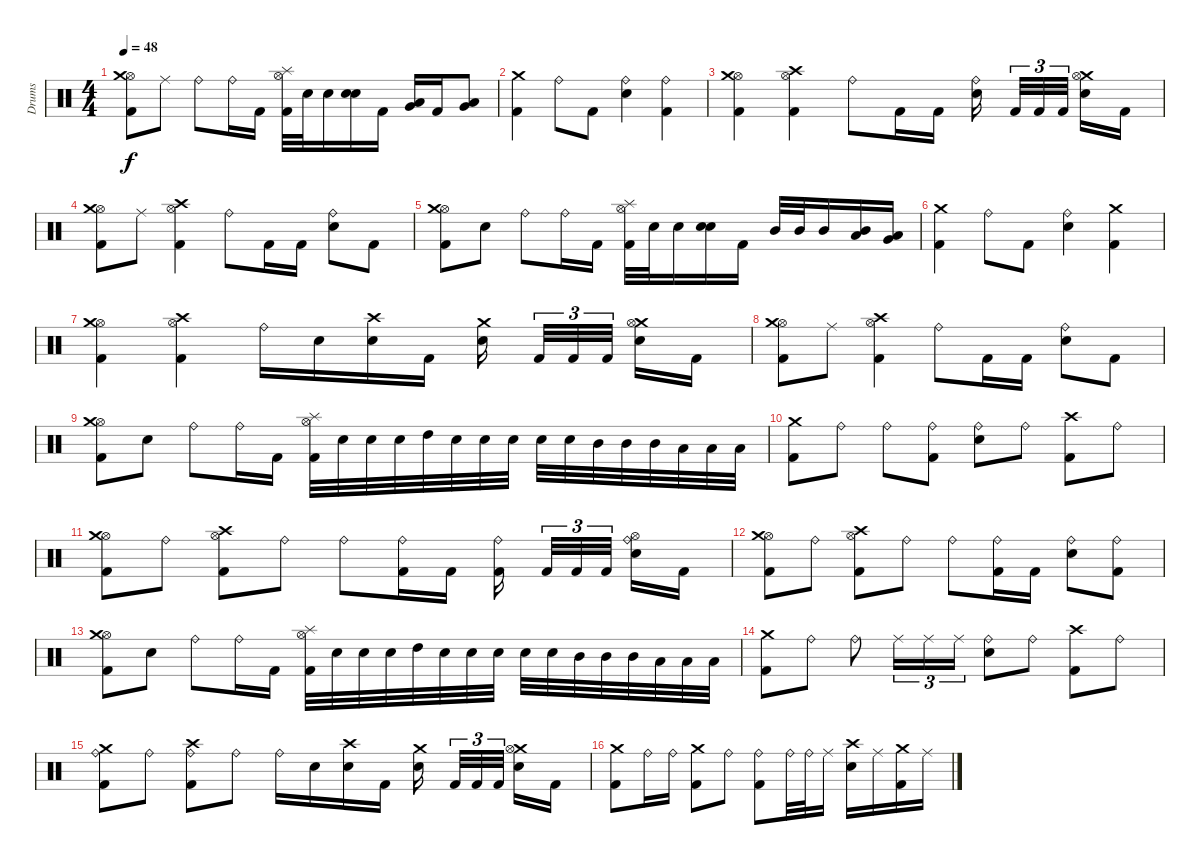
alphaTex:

\track ("Drums" "Drums") {instrument percussion}
\staff {score}
\articulation defaults
\ts (4 4)
\tempo 48
\clef neutral
\ks c
("Hi-Hat (open)" "Crash medium (hit)" "Kick (hit) 2").8{dy f} "Ride (middle)".8 "Ride (bell)".8 "Ride (bell)".16 "Kick (hit) 2".16 ("Hi-Hat (open)" "Splash (hit)" "Kick (hit) 2").32 "Electric Snare (hit)".32 "Electric Snare (hit)".16 ("Electric Snare (hit)" "Electric Snare (hit)").16{bu 30} "Kick (hit) 2".16 ("Low Tom (hit)" "Very Low Tom (hit)").16 "Kick (hit) 2".16 ("Very Low Tom (hit)" "Low Floor Tom (hit)").8 |
("Crash medium (hit)" "Kick (hit) 2").4 "Ride (bell)".8 "Kick (hit) 2".8 ("Ride (bell)" "Electric Snare (hit)").4 ("Ride (bell)" "Kick (hit) 2").4 |
("Hi-Hat (open)" "Crash medium (hit)" "Kick (hit) 2").4 ("Hi-Hat (open)" "Crash high (hit)" "Kick (hit) 2").4 "Ride (bell)".8 "Kick (hit) 2".16 "Kick (hit) 2".16 ("Ride (bell)" "Electric Snare (hit)").16 "Kick (hit) 2".32{tu (3 2)} "Kick (hit) 2".32{tu (3 2)} "Kick (hit) 2".32{tu (3 2)} ("Crash medium (hit)" "Hi-Hat (open)" "Electric Snare (hit)").16 "Kick (hit) 2".16 |
("Hi-Hat (open)" "Crash medium (hit)" "Kick (hit) 2").8 "Ride (middle)".8 ("Hi-Hat (open)" "Crash high (hit)" "Kick (hit) 2").4 "Ride (bell)".8 "Kick (hit) 2".16 "Kick (hit) 2".16 ("Ride (bell)" "Electric Snare (hit)").8 "Kick (hit) 2".8 |
("Hi-Hat (open)" "Crash medium (hit)" "Kick (hit) 2").8 "Electric Snare (hit)".8 "Ride (bell)".8 "Ride (bell)".16 "Kick (hit) 2".16 ("Hi-Hat (open)" "Splash (hit)" "Kick (hit) 2").32 "Electric Snare (hit)".32 "Electric Snare (hit)".16 ("Electric Snare (hit)" "Electric Snare (hit)").16{bu 30} "Kick (hit) 2".16 "Mid Tom (hit)".32 "Mid Tom (hit)".32 "Mid Tom (hit)".16 ("Mid Tom (hit)" "Low Tom (hit)").16 ("Low Tom (hit)" "Very Low Tom (hit)").16 |
("Crash medium (hit)" "Kick (hit) 2").4 "Ride (bell)".8 "Kick (hit) 2".8 ("Ride (bell)" "Electric Snare (hit)").4 ("Crash medium (hit)" "Kick (hit) 2").4 |
("Hi-Hat (open)" "Crash medium (hit)" "Kick (hit) 2").4 ("Hi-Hat (open)" "Crash high (hit)" "Kick (hit) 2").4 "Ride (bell)".16 "Electric Snare (hit)".16 ("Crash high (hit)" "Electric Snare (hit)").16 "Kick (hit) 2".16 ("Crash medium (hit)" "Electric Snare (hit)").16 "Kick (hit) 2".32{tu (3 2)} "Kick (hit) 2".32{tu (3 2)} "Kick (hit) 2".32{tu (3 2)} ("Crash medium (hit)" "Hi-Hat (open)" "Electric Snare (hit)").16 "Kick (hit) 2".16 |
("Hi-Hat (open)" "Crash medium (hit)" "Kick (hit) 2").8 "Ride (middle)".8 ("Hi-Hat (open)" "Crash high (hit)" "Kick (hit) 2").4 "Ride (bell)".8 "Kick (hit) 2".16 "Kick (hit) 2".16 ("Ride (bell)" "Electric Snare (hit)").8 "Kick (hit) 2".8 |
("Hi-Hat (open)" "Crash medium (hit)" "Kick (hit) 2").8 "Electric Snare (hit)".8 "Ride (bell)".8 "Ride (bell)".16 "Kick (hit) 2".16 ("Hi-Hat (open)" "Splash (hit)" "Kick (hit) 2").32 "Electric Snare (hit)".32 "Electric Snare (hit)".32 "Electric Snare (hit)".32 "High Tom (hit)".32 "Electric Snare (hit)".32 "Electric Snare (hit)".32 "Electric Snare (hit)".32 "Electric Snare (hit)".32 "Electric Snare (hit)".32 "Mid Tom (hit)".32 "Mid Tom (hit)".32 "Mid Tom (hit)".32 "Low Tom (hit)".32 "Low Tom (hit)".32 "Low Tom (hit)".32 |
("Crash medium (hit)" "Kick (hit) 2").8 "Ride (bell)".8 "Ride (bell)".8 ("Ride (bell)" "Kick (hit) 2").8 ("Ride (bell)" "Electric Snare (hit)").8 "Ride (bell)".8 ("Crash high (hit)" "Kick (hit) 2").8 "Ride (bell)".8 |
("Hi-Hat (open)" "Crash medium (hit)" "Kick (hit) 2").8 "Ride (bell)".8 ("Hi-Hat (open)" "Crash high (hit)" "Kick (hit) 2").8 "Ride (bell)".8 "Ride (bell)".8 ("Ride (bell)" "Kick (hit) 2").16 "Kick (hit) 2".16 ("Ride (bell)" "Kick (hit) 2").16 "Kick (hit) 2".32{tu (3 2)} "Kick (hit) 2".32{tu (3 2)} "Kick (hit) 2".32{tu (3 2)} ("Ride (bell)" "Hi-Hat (open)" "Electric Snare (hit)").16 "Kick (hit) 2".16 |
("Hi-Hat (open)" "Crash medium (hit)" "Kick (hit) 2").8 "Ride (bell)".8 ("Hi-Hat (open)" "Crash high (hit)" "Kick (hit) 2").8 "Ride (bell)".8 "Ride (bell)".8 ("Ride (bell)" "Kick (hit) 2").16 "Kick (hit) 2".16 ("Ride (bell)" "Electric Snare (hit)").8 ("Ride (bell)" "Kick (hit) 2").8 |
("Hi-Hat (open)" "Crash medium (hit)" "Kick (hit) 2").8 "Electric Snare (hit)".8 "Ride (bell)".8 "Ride (bell)".16 "Kick (hit) 2".16 ("Hi-Hat (open)" "Splash (hit)" "Kick (hit) 2").32 "Electric Snare (hit)".32 "Electric Snare (hit)".32 "Electric Snare (hit)".32 "High Tom (hit)".32 "Electric Snare (hit)".32 "Electric Snare (hit)".32 "Electric Snare (hit)".32 "Electric Snare (hit)".32 "Electric Snare (hit)".32 "Mid Tom (hit)".32 "Mid Tom (hit)".32 "Mid Tom (hit)".32 "Low Tom (hit)".32 "Low Tom (hit)".32 "Low Tom (hit)".32 |
("Crash medium (hit)" "Kick (hit) 2").8 "Ride (bell)".8 "Ride (bell)".8 "Ride (middle)".16{tu (3 2)} "Ride (middle)".16{tu (3 2)} "Ride (middle)".16{tu (3 2)} ("Ride (bell)" "Electric Snare (hit)").8 "Ride (bell)".8 ("Crash high (hit)" "Kick (hit) 2").8 "Ride (bell)".8 |
("Ride (bell)" "Crash medium (hit)" "Kick (hit) 2").8 "Ride (bell)".8 ("Ride (bell)" "Crash high (hit)" "Kick (hit) 2").8 "Ride (bell)".8 "Ride (bell)".16 "Electric Snare (hit)".16 ("Crash high (hit)" "Electric Snare (hit)").16 "Kick (hit) 2".16 ("Crash medium (hit)" "Electric Snare (hit)").16 "Kick (hit) 2".32{tu (3 2)} "Kick (hit) 2".32{tu (3 2)} "Kick (hit) 2".32{tu (3 2)} ("Crash medium (hit)" "Hi-Hat (open)" "Electric Snare (hit)").16 "Kick (hit) 2".16 |
("Crash medium (hit)" "Kick (hit) 2").8 "Ride (bell)".16 "Ride (bell)".16 ("Crash medium (hit)" "Kick (hit) 2").8 "Ride (bell)".8 ("Ride (bell)" "Kick (hit) 2").8 "Ride (bell)".32 "Ride (bell)".32 "Ride (middle)".16 ("Crash high (hit)" "Electric Snare (hit)").16 "Ride (middle)".16 ("Crash medium (hit)" "Kick (hit) 2").16 "Ride (middle)".16
